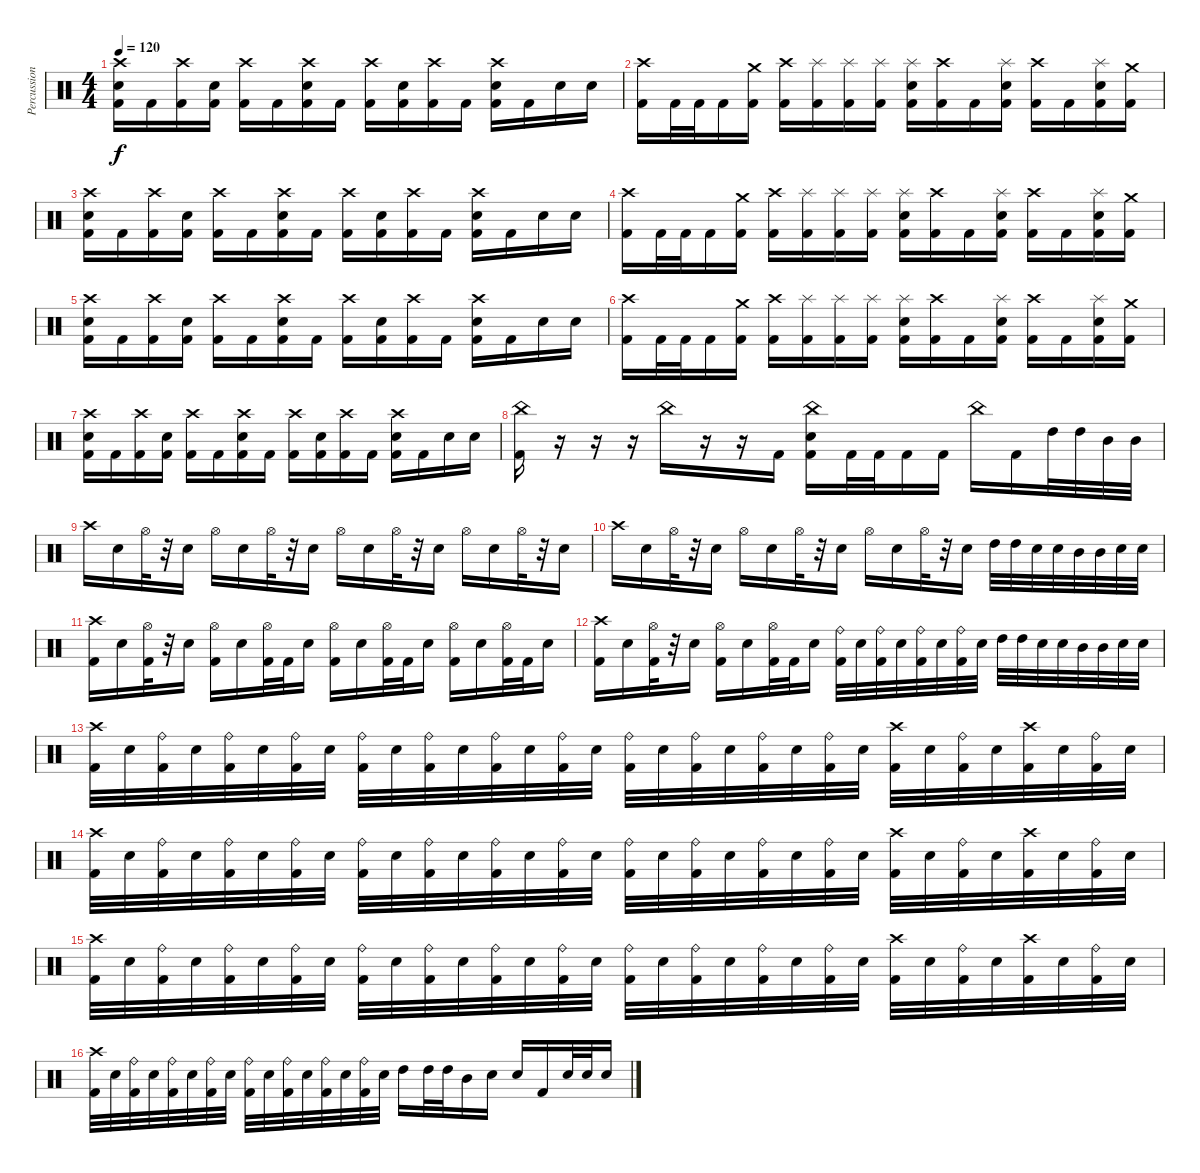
\track ("Percussion" "Percussion") {instrument percussion}
\staff {score}
\articulation defaults
\ts (4 4)
\tempo 120
\clef neutral
\ks c
("Crash high (hit)" "Electric Snare (hit)" "Kick (hit) 2").16{dy f} "Kick (hit) 2".16 ("Crash high (hit)" "Kick (hit) 2").16 ("Electric Snare (hit)" "Kick (hit) 2").16 ("Crash high (hit)" "Kick (hit) 2").16 "Kick (hit) 2".16 ("Crash high (hit)" "Electric Snare (hit)" "Kick (hit) 2").16 "Kick (hit) 2".16 ("Crash high (hit)" "Kick (hit) 2").16 ("Electric Snare (hit)" "Kick (hit) 2").16 ("Crash high (hit)" "Kick (hit) 2").16 "Kick (hit) 2".16 ("Crash high (hit)" "Electric Snare (hit)" "Kick (hit) 2").16 "Kick (hit) 2".16 "Electric Snare (hit)".16 "Electric Snare (hit)".16 |
("Crash high (hit)" "Kick (hit) 2").16 "Kick (hit) 2".32 "Kick (hit) 2".32 "Kick (hit) 2".16 ("Crash medium (hit)" "Kick (hit) 2").16 ("Crash high (hit)" "Kick (hit) 2").16 ("Splash (hit)" "Kick (hit) 2").16 ("Splash (hit)" "Kick (hit) 2").16 ("Splash (hit)" "Kick (hit) 2").16 ("Splash (hit)" "Electric Snare (hit)" "Kick (hit) 2").16 ("Crash high (hit)" "Kick (hit) 2").16 "Kick (hit) 2".16 ("Splash (hit)" "Electric Snare (hit)" "Kick (hit) 2").16 ("Crash high (hit)" "Kick (hit) 2").16 "Kick (hit) 2".16 ("Splash (hit)" "Electric Snare (hit)" "Kick (hit) 2").16 ("Crash medium (hit)" "Kick (hit) 2").16 |
("Crash high (hit)" "Electric Snare (hit)" "Kick (hit) 2").16 "Kick (hit) 2".16 ("Crash high (hit)" "Kick (hit) 2").16 ("Electric Snare (hit)" "Kick (hit) 2").16 ("Crash high (hit)" "Kick (hit) 2").16 "Kick (hit) 2".16 ("Crash high (hit)" "Electric Snare (hit)" "Kick (hit) 2").16 "Kick (hit) 2".16 ("Crash high (hit)" "Kick (hit) 2").16 ("Electric Snare (hit)" "Kick (hit) 2").16 ("Crash high (hit)" "Kick (hit) 2").16 "Kick (hit) 2".16 ("Crash high (hit)" "Electric Snare (hit)" "Kick (hit) 2").16 "Kick (hit) 2".16 "Electric Snare (hit)".16 "Electric Snare (hit)".16 |
("Crash high (hit)" "Kick (hit) 2").16 "Kick (hit) 2".32 "Kick (hit) 2".32 "Kick (hit) 2".16 ("Crash medium (hit)" "Kick (hit) 2").16 ("Crash high (hit)" "Kick (hit) 2").16 ("Splash (hit)" "Kick (hit) 2").16 ("Splash (hit)" "Kick (hit) 2").16 ("Splash (hit)" "Kick (hit) 2").16 ("Splash (hit)" "Electric Snare (hit)" "Kick (hit) 2").16 ("Crash high (hit)" "Kick (hit) 2").16 "Kick (hit) 2".16 ("Splash (hit)" "Electric Snare (hit)" "Kick (hit) 2").16 ("Crash high (hit)" "Kick (hit) 2").16 "Kick (hit) 2".16 ("Splash (hit)" "Electric Snare (hit)" "Kick (hit) 2").16 ("Crash medium (hit)" "Kick (hit) 2").16 |
("Crash high (hit)" "Electric Snare (hit)" "Kick (hit) 2").16 "Kick (hit) 2".16 ("Crash high (hit)" "Kick (hit) 2").16 ("Electric Snare (hit)" "Kick (hit) 2").16 ("Crash high (hit)" "Kick (hit) 2").16 "Kick (hit) 2".16 ("Crash high (hit)" "Electric Snare (hit)" "Kick (hit) 2").16 "Kick (hit) 2".16 ("Crash high (hit)" "Kick (hit) 2").16 ("Electric Snare (hit)" "Kick (hit) 2").16 ("Crash high (hit)" "Kick (hit) 2").16 "Kick (hit) 2".16 ("Crash high (hit)" "Electric Snare (hit)" "Kick (hit) 2").16 "Kick (hit) 2".16 "Electric Snare (hit)".16 "Electric Snare (hit)".16 |
("Crash high (hit)" "Kick (hit) 2").16 "Kick (hit) 2".32 "Kick (hit) 2".32 "Kick (hit) 2".16 ("Crash medium (hit)" "Kick (hit) 2").16 ("Crash high (hit)" "Kick (hit) 2").16 ("Splash (hit)" "Kick (hit) 2").16 ("Splash (hit)" "Kick (hit) 2").16 ("Splash (hit)" "Kick (hit) 2").16 ("Splash (hit)" "Electric Snare (hit)" "Kick (hit) 2").16 ("Crash high (hit)" "Kick (hit) 2").16 "Kick (hit) 2".16 ("Splash (hit)" "Electric Snare (hit)" "Kick (hit) 2").16 ("Crash high (hit)" "Kick (hit) 2").16 "Kick (hit) 2".16 ("Splash (hit)" "Electric Snare (hit)" "Kick (hit) 2").16 ("Crash medium (hit)" "Kick (hit) 2").16 |
("Crash high (hit)" "Electric Snare (hit)" "Kick (hit) 2").16 "Kick (hit) 2".16 ("Crash high (hit)" "Kick (hit) 2").16 ("Electric Snare (hit)" "Kick (hit) 2").16 ("Crash high (hit)" "Kick (hit) 2").16 "Kick (hit) 2".16 ("Crash high (hit)" "Electric Snare (hit)" "Kick (hit) 2").16 "Kick (hit) 2".16 ("Crash high (hit)" "Kick (hit) 2").16 ("Electric Snare (hit)" "Kick (hit) 2").16 ("Crash high (hit)" "Kick (hit) 2").16 "Kick (hit) 2".16 ("Crash high (hit)" "Electric Snare (hit)" "Kick (hit) 2").16 "Kick (hit) 2".16 "Electric Snare (hit)".16 "Electric Snare (hit)".16 |
("China (hit)" "Kick (hit) 2").16 r.16 r.16 r.16 "China (hit)".16 r.16 r.16 "Kick (hit) 2".16 ("China (hit)" "Electric Snare (hit)" "Kick (hit) 2").16 "Kick (hit) 2".32 "Kick (hit) 2".32 "Kick (hit) 2".16 "Kick (hit) 2".16 "China (hit)".16 "Kick (hit) 2".16 "High Tom (hit)".32 "High Tom (hit)".32 "Mid Tom (hit)".32 "Mid Tom (hit)".32 |
"Crash high (hit)".16{volume 8} "Electric Snare (hit)".16 "Hi-Hat (open)".32 r.32 "Electric Snare (hit)".16 "Hi-Hat (open)".16 "Electric Snare (hit)".16 "Hi-Hat (open)".32 r.32 "Electric Snare (hit)".16 "Hi-Hat (open)".16 "Electric Snare (hit)".16 "Hi-Hat (open)".32 r.32 "Electric Snare (hit)".16 "Hi-Hat (open)".16 "Electric Snare (hit)".16 "Hi-Hat (open)".32 r.32 "Electric Snare (hit)".16 |
"Crash high (hit)".16 "Electric Snare (hit)".16 "Hi-Hat (open)".32 r.32 "Electric Snare (hit)".16 "Hi-Hat (open)".16 "Electric Snare (hit)".16 "Hi-Hat (open)".32 r.32 "Electric Snare (hit)".16 "Hi-Hat (open)".16 "Electric Snare (hit)".16 "Hi-Hat (open)".32 r.32 "Electric Snare (hit)".16 "High Tom (hit)".32 "High Tom (hit)".32 "Electric Snare (hit)".32 "Electric Snare (hit)".32 "Mid Tom (hit)".32 "Mid Tom (hit)".32 "Electric Snare (hit)".32 "Electric Snare (hit)".32 |
("Crash high (hit)" "Kick (hit) 2").16{volume 11} "Electric Snare (hit)".16 ("Hi-Hat (open)" "Kick (hit) 2").32 r.32 "Electric Snare (hit)".16 ("Hi-Hat (open)" "Kick (hit) 2").16 "Electric Snare (hit)".16 ("Hi-Hat (open)" "Kick (hit) 2").32 "Kick (hit) 2".32 "Electric Snare (hit)".16 ("Hi-Hat (open)" "Kick (hit) 2").16 "Electric Snare (hit)".16 ("Hi-Hat (open)" "Kick (hit) 2").32 "Kick (hit) 2".32 "Electric Snare (hit)".16 ("Hi-Hat (open)" "Kick (hit) 2").16 "Electric Snare (hit)".16 ("Hi-Hat (open)" "Kick (hit) 2").32 "Kick (hit) 2".32 "Electric Snare (hit)".16 |
("Crash high (hit)" "Kick (hit) 2").16 "Electric Snare (hit)".16 ("Hi-Hat (open)" "Kick (hit) 2").32 r.32 "Electric Snare (hit)".16 ("Hi-Hat (open)" "Kick (hit) 2").16 "Electric Snare (hit)".16 ("Hi-Hat (open)" "Kick (hit) 2").32 "Kick (hit) 2".32 "Electric Snare (hit)".16 ("Ride (bell)" "Kick (hit) 2").32{volume 13} "Electric Snare (hit)".32 ("Ride (bell)" "Kick (hit) 2").32 "Electric Snare (hit)".32 ("Ride (bell)" "Kick (hit) 2").32 "Electric Snare (hit)".32 ("Ride (bell)" "Kick (hit) 2").32 "Electric Snare (hit)".32 "High Tom (hit)".32 "High Tom (hit)".32 "Electric Snare (hit)".32 "Electric Snare (hit)".32 "Mid Tom (hit)".32 "Mid Tom (hit)".32 "Electric Snare (hit)".32 "Electric Snare (hit)".32 |
("Crash high (hit)" "Kick (hit) 2").32 "Electric Snare (hit)".32 ("Ride (bell)" "Kick (hit) 2").32 "Electric Snare (hit)".32 ("Ride (bell)" "Kick (hit) 2").32 "Electric Snare (hit)".32 ("Ride (bell)" "Kick (hit) 2").32 "Electric Snare (hit)".32 ("Ride (bell)" "Kick (hit) 2").32 "Electric Snare (hit)".32 ("Ride (bell)" "Kick (hit) 2").32 "Electric Snare (hit)".32 ("Ride (bell)" "Kick (hit) 2").32 "Electric Snare (hit)".32 ("Ride (bell)" "Kick (hit) 2").32 "Electric Snare (hit)".32 ("Ride (bell)" "Kick (hit) 2").32 "Electric Snare (hit)".32 ("Ride (bell)" "Kick (hit) 2").32 "Electric Snare (hit)".32 ("Ride (bell)" "Kick (hit) 2").32 "Electric Snare (hit)".32 ("Ride (bell)" "Kick (hit) 2").32 "Electric Snare (hit)".32 ("Crash high (hit)" "Kick (hit) 2").32 "Electric Snare (hit)".32 ("Ride (bell)" "Kick (hit) 2").32 "Electric Snare (hit)".32 ("Crash high (hit)" "Kick (hit) 2").32 "Electric Snare (hit)".32 ("Ride (bell)" "Kick (hit) 2").32 "Electric Snare (hit)".32 |
("Crash high (hit)" "Kick (hit) 2").32 "Electric Snare (hit)".32 ("Ride (bell)" "Kick (hit) 2").32 "Electric Snare (hit)".32 ("Ride (bell)" "Kick (hit) 2").32 "Electric Snare (hit)".32 ("Ride (bell)" "Kick (hit) 2").32 "Electric Snare (hit)".32 ("Ride (bell)" "Kick (hit) 2").32 "Electric Snare (hit)".32 ("Ride (bell)" "Kick (hit) 2").32 "Electric Snare (hit)".32 ("Ride (bell)" "Kick (hit) 2").32 "Electric Snare (hit)".32 ("Ride (bell)" "Kick (hit) 2").32 "Electric Snare (hit)".32 ("Ride (bell)" "Kick (hit) 2").32 "Electric Snare (hit)".32 ("Ride (bell)" "Kick (hit) 2").32 "Electric Snare (hit)".32 ("Ride (bell)" "Kick (hit) 2").32 "Electric Snare (hit)".32 ("Ride (bell)" "Kick (hit) 2").32 "Electric Snare (hit)".32 ("Crash high (hit)" "Kick (hit) 2").32 "Electric Snare (hit)".32 ("Ride (bell)" "Kick (hit) 2").32 "Electric Snare (hit)".32 ("Crash high (hit)" "Kick (hit) 2").32 "Electric Snare (hit)".32 ("Ride (bell)" "Kick (hit) 2").32 "Electric Snare (hit)".32 |
("Crash high (hit)" "Kick (hit) 2").32 "Electric Snare (hit)".32 ("Ride (bell)" "Kick (hit) 2").32 "Electric Snare (hit)".32 ("Ride (bell)" "Kick (hit) 2").32 "Electric Snare (hit)".32 ("Ride (bell)" "Kick (hit) 2").32 "Electric Snare (hit)".32 ("Ride (bell)" "Kick (hit) 2").32 "Electric Snare (hit)".32 ("Ride (bell)" "Kick (hit) 2").32 "Electric Snare (hit)".32 ("Ride (bell)" "Kick (hit) 2").32 "Electric Snare (hit)".32 ("Ride (bell)" "Kick (hit) 2").32 "Electric Snare (hit)".32 ("Ride (bell)" "Kick (hit) 2").32 "Electric Snare (hit)".32 ("Ride (bell)" "Kick (hit) 2").32 "Electric Snare (hit)".32 ("Ride (bell)" "Kick (hit) 2").32 "Electric Snare (hit)".32 ("Ride (bell)" "Kick (hit) 2").32 "Electric Snare (hit)".32 ("Crash high (hit)" "Kick (hit) 2").32 "Electric Snare (hit)".32 ("Ride (bell)" "Kick (hit) 2").32 "Electric Snare (hit)".32 ("Crash high (hit)" "Kick (hit) 2").32 "Electric Snare (hit)".32 ("Ride (bell)" "Kick (hit) 2").32 "Electric Snare (hit)".32 |
("Crash high (hit)" "Kick (hit) 2").32 "Electric Snare (hit)".32 ("Ride (bell)" "Kick (hit) 2").32 "Electric Snare (hit)".32 ("Ride (bell)" "Kick (hit) 2").32 "Electric Snare (hit)".32 ("Ride (bell)" "Kick (hit) 2").32 "Electric Snare (hit)".32 ("Ride (bell)" "Kick (hit) 2").32 "Electric Snare (hit)".32 ("Ride (bell)" "Kick (hit) 2").32 "Electric Snare (hit)".32 ("Ride (bell)" "Kick (hit) 2").32 "Electric Snare (hit)".32 ("Ride (bell)" "Kick (hit) 2").32 "Electric Snare (hit)".32 "High Tom (hit)".16 "High Tom (hit)".32 "High Tom (hit)".32 "Mid Tom (hit)".16 "Electric Snare (hit)".16 "Electric Snare (hit)".16 "Kick (hit) 2".16 "Electric Snare (hit)".32 "Electric Snare (hit)".32 "Electric Snare (hit)".16
